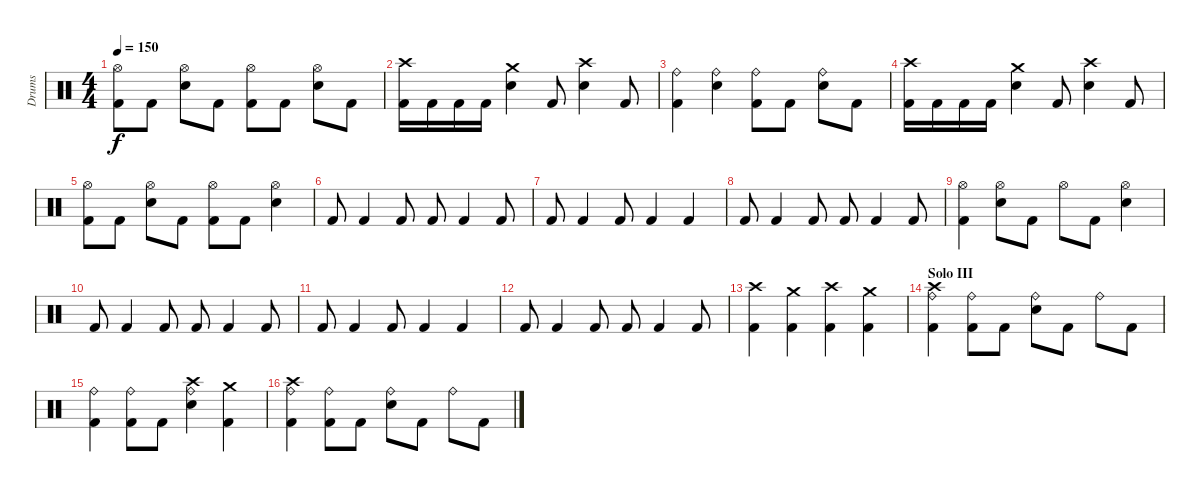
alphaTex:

\track ("Drums" "Drums") {instrument percussion}
\staff {score}
\articulation defaults
\ts (4 4)
\tempo 150
\clef neutral
\ks c
("Kick (hit) 2" "Hi-Hat (open)").8{dy f} "Kick (hit) 2".8 ("Electric Snare (hit)" "Hi-Hat (open)").8 "Kick (hit) 2".8 ("Kick (hit) 2" "Hi-Hat (open)").8 "Kick (hit) 2".8 ("Electric Snare (hit)" "Hi-Hat (open)").8 "Kick (hit) 2".8 |
("Kick (hit) 2" "Crash high (hit)").16 "Kick (hit) 2".16 "Kick (hit) 2".16 "Kick (hit) 2".16 ("Electric Snare (hit)" "Crash medium (hit)").4 "Kick (hit) 2".8 ("Electric Snare (hit)" "Crash high (hit)").4 "Kick (hit) 2".8 |
("Kick (hit) 2" "Ride (bell)").4 ("Electric Snare (hit)" "Ride (bell)").4 ("Kick (hit) 2" "Ride (bell)").8 "Kick (hit) 2".8 ("Electric Snare (hit)" "Ride (bell)").8 "Kick (hit) 2".8 |
("Kick (hit) 2" "Crash high (hit)").16 "Kick (hit) 2".16 "Kick (hit) 2".16 "Kick (hit) 2".16 ("Electric Snare (hit)" "Crash medium (hit)").4 "Kick (hit) 2".8 ("Electric Snare (hit)" "Crash high (hit)").4 "Kick (hit) 2".8 |
("Kick (hit) 2" "Hi-Hat (open)").8 "Kick (hit) 2".8 ("Electric Snare (hit)" "Hi-Hat (open)").8 "Kick (hit) 2".8 ("Kick (hit) 2" "Hi-Hat (open)").8 "Kick (hit) 2".8 ("Electric Snare (hit)" "Hi-Hat (open)").4 |
"Kick (hit) 2".8 "Kick (hit) 2".4 "Kick (hit) 2".8 "Kick (hit) 2".8 "Kick (hit) 2".4 "Kick (hit) 2".8 |
"Kick (hit) 2".8 "Kick (hit) 2".4 "Kick (hit) 2".8 "Kick (hit) 2".4 "Kick (hit) 2".4 |
"Kick (hit) 2".8 "Kick (hit) 2".4 "Kick (hit) 2".8 "Kick (hit) 2".8 "Kick (hit) 2".4 "Kick (hit) 2".8 |
("Kick (hit) 2" "Hi-Hat (open)").4 ("Electric Snare (hit)" "Hi-Hat (open)").8 "Kick (hit) 2".8 "Hi-Hat (open)".8 "Kick (hit) 2".8 ("Electric Snare (hit)" "Hi-Hat (open)").4 |
"Kick (hit) 2".8 "Kick (hit) 2".4 "Kick (hit) 2".8 "Kick (hit) 2".8 "Kick (hit) 2".4 "Kick (hit) 2".8 |
"Kick (hit) 2".8 "Kick (hit) 2".4 "Kick (hit) 2".8 "Kick (hit) 2".4 "Kick (hit) 2".4 |
"Kick (hit) 2".8 "Kick (hit) 2".4 "Kick (hit) 2".8 "Kick (hit) 2".8 "Kick (hit) 2".4 "Kick (hit) 2".8 |
("Kick (hit) 2" "Crash high (hit)").4 ("Kick (hit) 2" "Crash medium (hit)").4 ("Kick (hit) 2" "Crash high (hit)").4 ("Kick (hit) 2" "Crash medium (hit)").4 |
\section ("" "Solo III")
("Kick (hit) 2" "Ride (bell)" "Crash high (hit)").4 ("Kick (hit) 2" "Ride (bell)").8 "Kick (hit) 2".8 ("Electric Snare (hit)" "Ride (bell)").8 "Kick (hit) 2".8 "Ride (bell)".8 "Kick (hit) 2".8 |
("Kick (hit) 2" "Ride (bell)").4 ("Kick (hit) 2" "Ride (bell)").8 "Kick (hit) 2".8 ("Electric Snare (hit)" "Ride (bell)" "Crash high (hit)").4 ("Kick (hit) 2" "Crash medium (hit)").4 |
("Kick (hit) 2" "Ride (bell)" "Crash high (hit)").4 ("Kick (hit) 2" "Ride (bell)").8 "Kick (hit) 2".8 ("Electric Snare (hit)" "Ride (bell)").8 "Kick (hit) 2".8 "Ride (bell)".8 "Kick (hit) 2".8
